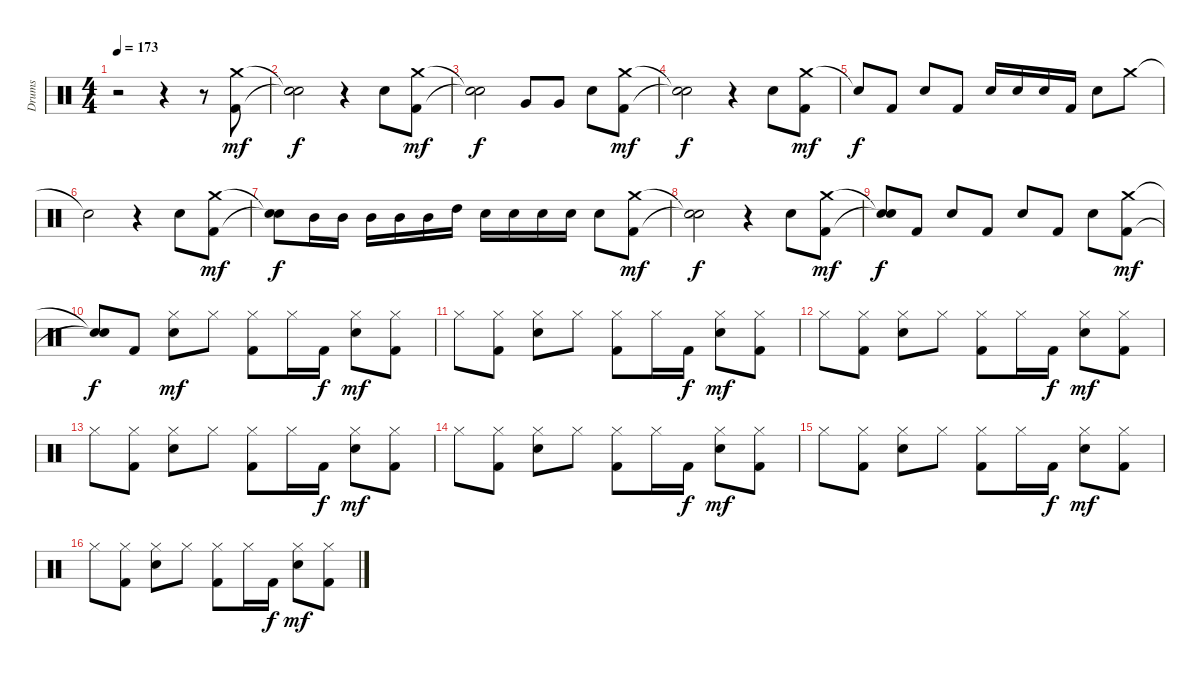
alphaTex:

\track ("Drums" "Drums") {instrument percussion}
\staff {score}
\articulation defaults
\ts (4 4)
\tempo 173
\clef neutral
\ks c
r.2{dy mf} r.4 r.8 ("Crash medium (hit)" "Kick (hit) 2").8 |
("Snare (hit)"{t} "Snare (hit)"{t}).2{dy f} r.4 "Electric Snare (hit)".8 ("Crash medium (hit)" "Kick (hit) 2").8{dy mf} |
("Snare (hit)"{t} "Snare (hit)"{t}).2{dy f} "Very Low Tom (hit)".8 "Very Low Tom (hit)".8 "Electric Snare (hit)".8 ("Crash medium (hit)" "Kick (hit) 2").8{dy mf} |
("Snare (hit)"{t} "Snare (hit)"{t}).2{dy f} r.4 "Electric Snare (hit)".8 ("Crash medium (hit)" "Kick (hit) 2").8{dy mf} |
"Snare (hit)"{t}.8{dy f} "Kick (hit) 2".8 "Electric Snare (hit)".8 "Kick (hit) 2".8 "Electric Snare (hit)".16 "Electric Snare (hit)".16 "Electric Snare (hit)".16 "Kick (hit) 2".16 "Electric Snare (hit)".8 "Crash medium (hit)".8 |
"Snare (hit)"{t}.2 r.4 "Electric Snare (hit)".8 ("Crash medium (hit)" "Kick (hit) 2").8{dy mf} |
("Snare (hit)"{t} "Snare (hit)"{t}).8{dy f} "Mid Tom (hit)".16 "Mid Tom (hit)".16 "Mid Tom (hit)".16 "Mid Tom (hit)".16 "Mid Tom (hit)".16 "High Tom (hit)".16 "Electric Snare (hit)".16 "Electric Snare (hit)".16 "Electric Snare (hit)".16 "Electric Snare (hit)".16 "Electric Snare (hit)".8 ("Crash medium (hit)" "Kick (hit) 2").8{dy mf} |
("Snare (hit)"{t} "Snare (hit)"{t}).2{dy f} r.4 "Electric Snare (hit)".8 ("Crash medium (hit)" "Kick (hit) 2").8{dy mf} |
("Snare (hit)"{t} "Snare (hit)"{t}).8{dy f} "Kick (hit) 2".8 "Electric Snare (hit)".8 "Kick (hit) 2".8 "Electric Snare (hit)".8 "Kick (hit) 2".8 "Electric Snare (hit)".8 ("Crash medium (hit)" "Kick (hit) 2").8{dy mf} |
("Snare (hit)"{t} "Snare (hit)"{t}).8{dy f} "Kick (hit) 2".8 ("Hi-Hat (closed)" "Electric Snare (hit)").8{dy mf} "Hi-Hat (closed)".8 ("Hi-Hat (closed)" "Kick (hit) 2").8 "Hi-Hat (closed)".16 "Kick (hit) 2".16{dy f} ("Hi-Hat (closed)" "Electric Snare (hit)").8{dy mf} ("Hi-Hat (closed)" "Kick (hit) 2").8 |
"Hi-Hat (closed)".8 ("Hi-Hat (closed)" "Kick (hit) 2").8 ("Hi-Hat (closed)" "Electric Snare (hit)").8 "Hi-Hat (closed)".8 ("Hi-Hat (closed)" "Kick (hit) 2").8 "Hi-Hat (closed)".16 "Kick (hit) 2".16{dy f} ("Hi-Hat (closed)" "Electric Snare (hit)").8{dy mf} ("Hi-Hat (closed)" "Kick (hit) 2").8 |
"Hi-Hat (closed)".8 ("Hi-Hat (closed)" "Kick (hit) 2").8 ("Hi-Hat (closed)" "Electric Snare (hit)").8 "Hi-Hat (closed)".8 ("Hi-Hat (closed)" "Kick (hit) 2").8 "Hi-Hat (closed)".16 "Kick (hit) 2".16{dy f} ("Hi-Hat (closed)" "Electric Snare (hit)").8{dy mf} ("Hi-Hat (closed)" "Kick (hit) 2").8 |
"Hi-Hat (closed)".8 ("Hi-Hat (closed)" "Kick (hit) 2").8 ("Hi-Hat (closed)" "Electric Snare (hit)").8 "Hi-Hat (closed)".8 ("Hi-Hat (closed)" "Kick (hit) 2").8 "Hi-Hat (closed)".16 "Kick (hit) 2".16{dy f} ("Hi-Hat (closed)" "Electric Snare (hit)").8{dy mf} ("Hi-Hat (closed)" "Kick (hit) 2").8 |
"Hi-Hat (closed)".8 ("Hi-Hat (closed)" "Kick (hit) 2").8 ("Hi-Hat (closed)" "Electric Snare (hit)").8 "Hi-Hat (closed)".8 ("Hi-Hat (closed)" "Kick (hit) 2").8 "Hi-Hat (closed)".16 "Kick (hit) 2".16{dy f} ("Hi-Hat (closed)" "Electric Snare (hit)").8{dy mf} ("Hi-Hat (closed)" "Kick (hit) 2").8 |
"Hi-Hat (closed)".8 ("Hi-Hat (closed)" "Kick (hit) 2").8 ("Hi-Hat (closed)" "Electric Snare (hit)").8 "Hi-Hat (closed)".8 ("Hi-Hat (closed)" "Kick (hit) 2").8 "Hi-Hat (closed)".16 "Kick (hit) 2".16{dy f} ("Hi-Hat (closed)" "Electric Snare (hit)").8{dy mf} ("Hi-Hat (closed)" "Kick (hit) 2").8 |
"Hi-Hat (closed)".8 ("Hi-Hat (closed)" "Kick (hit) 2").8 ("Hi-Hat (closed)" "Electric Snare (hit)").8 "Hi-Hat (closed)".8 ("Hi-Hat (closed)" "Kick (hit) 2").8 "Hi-Hat (closed)".16 "Kick (hit) 2".16{dy f} ("Hi-Hat (closed)" "Electric Snare (hit)").8{dy mf} ("Hi-Hat (closed)" "Kick (hit) 2").8
